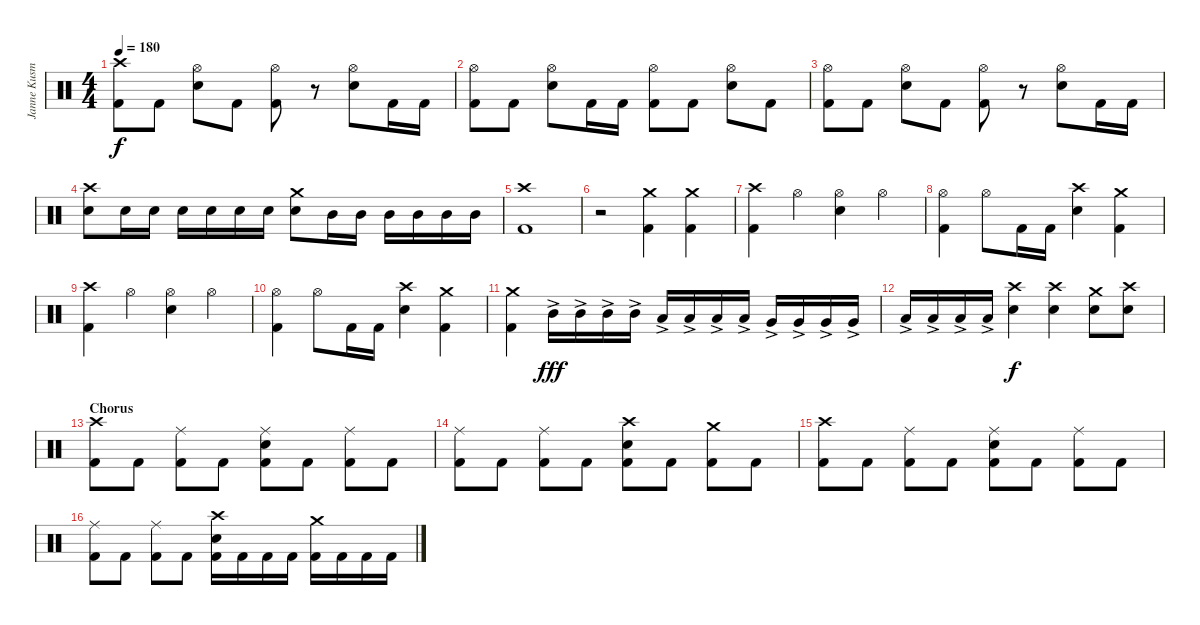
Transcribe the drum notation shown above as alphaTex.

\track ("Janne Kusmin - Drums" "Janne Kusm") {instrument percussion}
\staff {score}
\articulation defaults
\ts (4 4)
\tempo 180
\clef neutral
\ks c
("Crash high (hit)" "Kick (hit) 2").8{dy f} "Kick (hit) 2".8 ("Hi-Hat (open)" "Electric Snare (hit)").8 "Kick (hit) 2".8 ("Hi-Hat (open)" "Kick (hit) 2").8 r.8 ("Hi-Hat (open)" "Electric Snare (hit)").8 "Kick (hit) 2".16 "Kick (hit) 2".16 |
("Hi-Hat (open)" "Kick (hit) 2").8 "Kick (hit) 2".8 ("Hi-Hat (open)" "Electric Snare (hit)").8 "Kick (hit) 2".16 "Kick (hit) 2".16 ("Hi-Hat (open)" "Kick (hit) 2").8 "Kick (hit) 2".8 ("Hi-Hat (open)" "Electric Snare (hit)").8 "Kick (hit) 2".8 |
("Hi-Hat (open)" "Kick (hit) 2").8 "Kick (hit) 2".8 ("Hi-Hat (open)" "Electric Snare (hit)").8 "Kick (hit) 2".8 ("Hi-Hat (open)" "Kick (hit) 2").8 r.8 ("Hi-Hat (open)" "Electric Snare (hit)").8 "Kick (hit) 2".16 "Kick (hit) 2".16 |
("Crash high (hit)" "Electric Snare (hit)").8 "Electric Snare (hit)".16 "Electric Snare (hit)".16 "Electric Snare (hit)".16 "Electric Snare (hit)".16 "Electric Snare (hit)".16 "Electric Snare (hit)".16 ("Crash medium (hit)" "Electric Snare (hit)").8 "Mid Tom (hit)".16 "Mid Tom (hit)".16 "Mid Tom (hit)".16 "Mid Tom (hit)".16 "Mid Tom (hit)".16 "Mid Tom (hit)".16 |
\section ("" "")
("Crash high (hit)" "Kick (hit) 2").1 |
r.2 ("Crash medium (hit)" "Kick (hit) 2").4 ("Crash medium (hit)" "Kick (hit) 2").4 |
("Crash high (hit)" "Kick (hit) 2").4 "Hi-Hat (open)".4 ("Hi-Hat (open)" "Electric Snare (hit)").4 "Hi-Hat (open)".4 |
("Hi-Hat (open)" "Kick (hit) 2").4 "Hi-Hat (open)".8 "Kick (hit) 2".16 "Kick (hit) 2".16 ("Crash high (hit)" "Electric Snare (hit)").4 ("Crash medium (hit)" "Kick (hit) 2").4 |
("Crash high (hit)" "Kick (hit) 2").4 "Hi-Hat (open)".4 ("Hi-Hat (open)" "Electric Snare (hit)").4 "Hi-Hat (open)".4 |
("Hi-Hat (open)" "Kick (hit) 2").4 "Hi-Hat (open)".8 "Kick (hit) 2".16 "Kick (hit) 2".16 ("Crash high (hit)" "Electric Snare (hit)").4 ("Crash medium (hit)" "Kick (hit) 2").4 |
("Crash medium (hit)" "Kick (hit) 2").4 "Mid Tom (hit)"{ac}.16{dy fff} "Mid Tom (hit)"{ac}.16 "Mid Tom (hit)"{ac}.16 "Mid Tom (hit)"{ac}.16 "Low Tom (hit)"{ac}.16 "Low Tom (hit)"{ac}.16 "Low Tom (hit)"{ac}.16 "Low Tom (hit)"{ac}.16 "Very Low Tom (hit)"{ac}.16 "Very Low Tom (hit)"{ac}.16 "Very Low Tom (hit)"{ac}.16 "Very Low Tom (hit)"{ac}.16 |
"Low Floor Tom (hit)"{ac}.16 "Low Floor Tom (hit)"{ac}.16 "Low Floor Tom (hit)"{ac}.16 "Low Floor Tom (hit)"{ac}.16 ("Crash high (hit)" "Electric Snare (hit)").4{dy f} ("Crash high (hit)" "Electric Snare (hit)").4 ("Crash medium (hit)" "Electric Snare (hit)").8 ("Crash high (hit)" "Electric Snare (hit)").8 |
\section ("" "Chorus")
("Crash high (hit)" "Kick (hit) 2").8 "Kick (hit) 2".8 ("Ride (middle)" "Kick (hit) 2").8 "Kick (hit) 2".8 ("Ride (middle)" "Electric Snare (hit)" "Kick (hit) 2").8 "Kick (hit) 2".8 ("Ride (middle)" "Kick (hit) 2").8 "Kick (hit) 2".8 |
("Ride (middle)" "Kick (hit) 2").8 "Kick (hit) 2".8 ("Ride (middle)" "Kick (hit) 2").8 "Kick (hit) 2".8 ("Crash high (hit)" "Electric Snare (hit)" "Kick (hit) 2").8 "Kick (hit) 2".8 ("Crash medium (hit)" "Kick (hit) 2").8 "Kick (hit) 2".8 |
("Crash high (hit)" "Kick (hit) 2").8 "Kick (hit) 2".8 ("Ride (middle)" "Kick (hit) 2").8 "Kick (hit) 2".8 ("Ride (middle)" "Electric Snare (hit)" "Kick (hit) 2").8 "Kick (hit) 2".8 ("Ride (middle)" "Kick (hit) 2").8 "Kick (hit) 2".8 |
("Ride (middle)" "Kick (hit) 2").8 "Kick (hit) 2".8 ("Ride (middle)" "Kick (hit) 2").8 "Kick (hit) 2".8 ("Crash high (hit)" "Electric Snare (hit)" "Kick (hit) 2").16 "Kick (hit) 2".16 "Kick (hit) 2".16 "Kick (hit) 2".16 ("Crash medium (hit)" "Kick (hit) 2").16 "Kick (hit) 2".16 "Kick (hit) 2".16 "Kick (hit) 2".16
